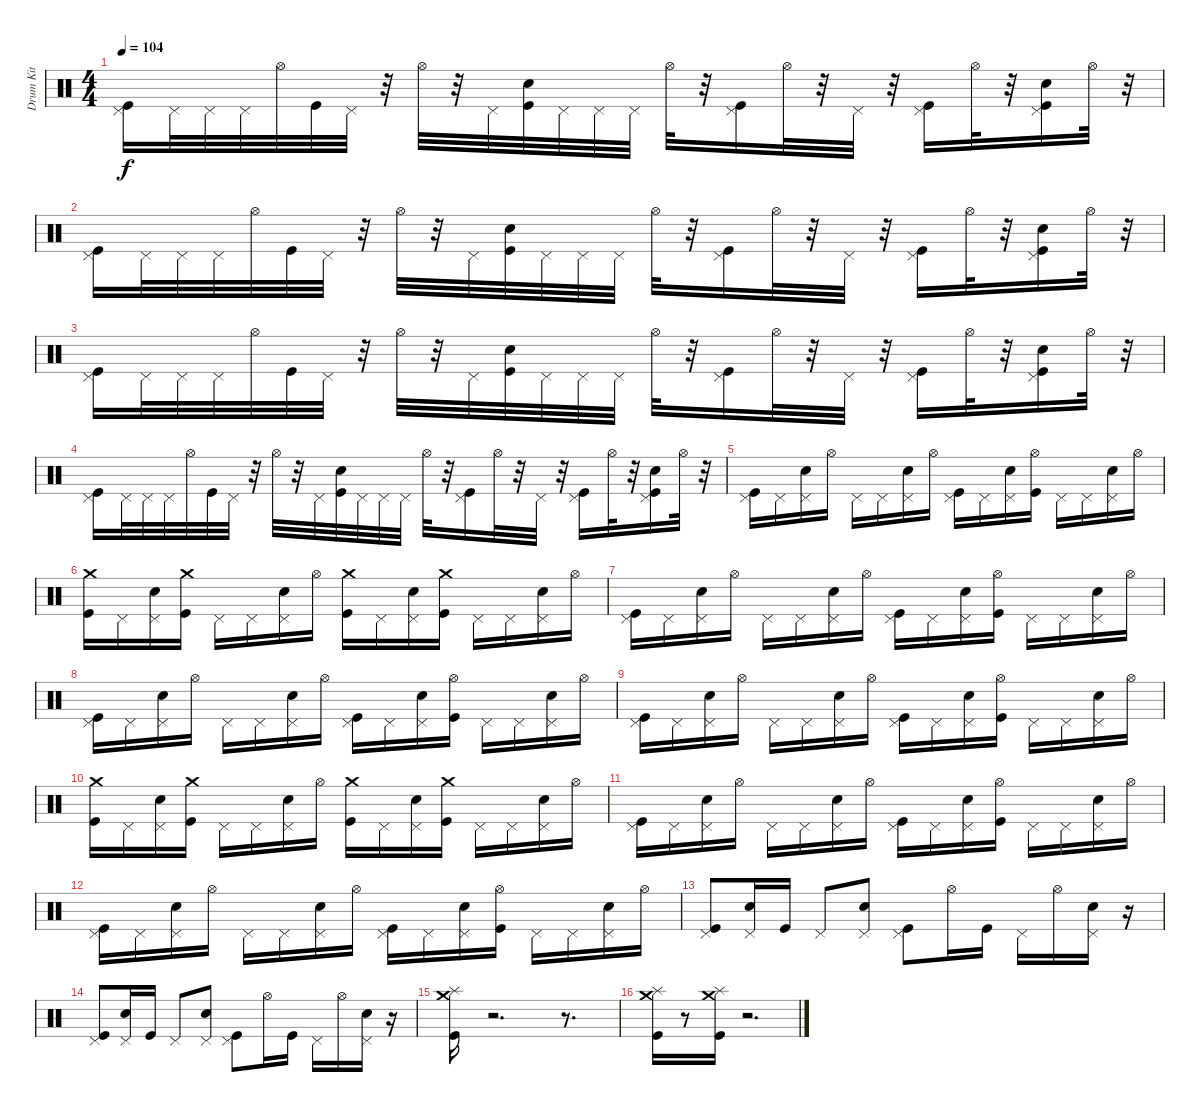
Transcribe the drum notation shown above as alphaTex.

\track ("Drum Kit" "Drum Kit") {instrument percussion}
\staff {score}
\articulation defaults
\ts (4 4)
\tempo 104
\clef neutral
\ks c
("Kick (hit)" "Pedal Hi-Hat (hit)").16{dy f volume 9 balance 16} "Pedal Hi-Hat (hit)".32 "Pedal Hi-Hat (hit)".32 "Pedal Hi-Hat (hit)".32 "Hi-Hat (open)".32 "Kick (hit)".32 "Pedal Hi-Hat (hit)".32 r.32 "Hi-Hat (open)".32 r.32 "Pedal Hi-Hat (hit)".32 ("Electric Snare (hit)" "Kick (hit)").32 "Pedal Hi-Hat (hit)".32 "Pedal Hi-Hat (hit)".32 "Pedal Hi-Hat (hit)".32 "Hi-Hat (open)".32 r.32 ("Pedal Hi-Hat (hit)" "Kick (hit)").16 "Hi-Hat (open)".32 r.32 "Pedal Hi-Hat (hit)".32 r.32 ("Kick (hit)" "Pedal Hi-Hat (hit)").16 "Hi-Hat (open)".32 r.32 ("Kick (hit)" "Electric Snare (hit)" "Pedal Hi-Hat (hit)").16 "Hi-Hat (open)".32 r.32 |
("Kick (hit)" "Pedal Hi-Hat (hit)").16 "Pedal Hi-Hat (hit)".32 "Pedal Hi-Hat (hit)".32 "Pedal Hi-Hat (hit)".32 "Hi-Hat (open)".32 "Kick (hit)".32 "Pedal Hi-Hat (hit)".32 r.32 "Hi-Hat (open)".32 r.32 "Pedal Hi-Hat (hit)".32 ("Electric Snare (hit)" "Kick (hit)").32 "Pedal Hi-Hat (hit)".32 "Pedal Hi-Hat (hit)".32 "Pedal Hi-Hat (hit)".32 "Hi-Hat (open)".32 r.32 ("Pedal Hi-Hat (hit)" "Kick (hit)").16 "Hi-Hat (open)".32 r.32 "Pedal Hi-Hat (hit)".32 r.32 ("Kick (hit)" "Pedal Hi-Hat (hit)").16 "Hi-Hat (open)".32 r.32 ("Kick (hit)" "Electric Snare (hit)" "Pedal Hi-Hat (hit)").16 "Hi-Hat (open)".32 r.32 |
("Kick (hit)" "Pedal Hi-Hat (hit)").16 "Pedal Hi-Hat (hit)".32 "Pedal Hi-Hat (hit)".32 "Pedal Hi-Hat (hit)".32 "Hi-Hat (open)".32 "Kick (hit)".32 "Pedal Hi-Hat (hit)".32 r.32 "Hi-Hat (open)".32 r.32 "Pedal Hi-Hat (hit)".32 ("Electric Snare (hit)" "Kick (hit)").32 "Pedal Hi-Hat (hit)".32 "Pedal Hi-Hat (hit)".32 "Pedal Hi-Hat (hit)".32 "Hi-Hat (open)".32 r.32 ("Pedal Hi-Hat (hit)" "Kick (hit)").16 "Hi-Hat (open)".32 r.32 "Pedal Hi-Hat (hit)".32 r.32 ("Kick (hit)" "Pedal Hi-Hat (hit)").16 "Hi-Hat (open)".32 r.32 ("Kick (hit)" "Electric Snare (hit)" "Pedal Hi-Hat (hit)").16 "Hi-Hat (open)".32 r.32 |
("Kick (hit)" "Pedal Hi-Hat (hit)").16 "Pedal Hi-Hat (hit)".32 "Pedal Hi-Hat (hit)".32 "Pedal Hi-Hat (hit)".32 "Hi-Hat (open)".32 "Kick (hit)".32 "Pedal Hi-Hat (hit)".32 r.32 "Hi-Hat (open)".32 r.32 "Pedal Hi-Hat (hit)".32 ("Electric Snare (hit)" "Kick (hit)").32 "Pedal Hi-Hat (hit)".32 "Pedal Hi-Hat (hit)".32 "Pedal Hi-Hat (hit)".32 "Hi-Hat (open)".32 r.32 ("Pedal Hi-Hat (hit)" "Kick (hit)").16 "Hi-Hat (open)".32 r.32 "Pedal Hi-Hat (hit)".32 r.32 ("Kick (hit)" "Pedal Hi-Hat (hit)").16 "Hi-Hat (open)".32 r.32 ("Kick (hit)" "Electric Snare (hit)" "Pedal Hi-Hat (hit)").16 "Hi-Hat (open)".32 r.32 |
("Kick (hit)" "Pedal Hi-Hat (hit)").16 "Pedal Hi-Hat (hit)".16 ("Electric Snare (hit)" "Pedal Hi-Hat (hit)").16 "Hi-Hat (open)".16 "Pedal Hi-Hat (hit)".16 "Pedal Hi-Hat (hit)".16 ("Electric Snare (hit)" "Pedal Hi-Hat (hit)").16 "Hi-Hat (open)".16 ("Kick (hit)" "Pedal Hi-Hat (hit)").16 "Pedal Hi-Hat (hit)".16 ("Electric Snare (hit)" "Pedal Hi-Hat (hit)").16 ("Kick (hit)" "Hi-Hat (open)").16 "Pedal Hi-Hat (hit)".16 "Pedal Hi-Hat (hit)".16 ("Electric Snare (hit)" "Pedal Hi-Hat (hit)").16 "Hi-Hat (open)".16 |
("Kick (hit)" "Crash medium (hit)").16 "Pedal Hi-Hat (hit)".16 ("Pedal Hi-Hat (hit)" "Electric Snare (hit)").16 ("Kick (hit)" "Crash medium (hit)").16 "Pedal Hi-Hat (hit)".16 "Pedal Hi-Hat (hit)".16 ("Pedal Hi-Hat (hit)" "Electric Snare (hit)").16 "Hi-Hat (open)".16 ("Kick (hit)" "Crash medium (hit)").16 "Pedal Hi-Hat (hit)".16 ("Pedal Hi-Hat (hit)" "Electric Snare (hit)").16 ("Kick (hit)" "Crash medium (hit)").16 "Pedal Hi-Hat (hit)".16 "Pedal Hi-Hat (hit)".16 ("Pedal Hi-Hat (hit)" "Electric Snare (hit)").16 "Hi-Hat (open)".16 |
("Kick (hit)" "Pedal Hi-Hat (hit)").16 "Pedal Hi-Hat (hit)".16 ("Electric Snare (hit)" "Pedal Hi-Hat (hit)").16 "Hi-Hat (open)".16 "Pedal Hi-Hat (hit)".16 "Pedal Hi-Hat (hit)".16 ("Electric Snare (hit)" "Pedal Hi-Hat (hit)").16 "Hi-Hat (open)".16 ("Kick (hit)" "Pedal Hi-Hat (hit)").16 "Pedal Hi-Hat (hit)".16 ("Electric Snare (hit)" "Pedal Hi-Hat (hit)").16 ("Kick (hit)" "Hi-Hat (open)").16 "Pedal Hi-Hat (hit)".16 "Pedal Hi-Hat (hit)".16 ("Electric Snare (hit)" "Pedal Hi-Hat (hit)").16 "Hi-Hat (open)".16 |
("Kick (hit)" "Pedal Hi-Hat (hit)").16 "Pedal Hi-Hat (hit)".16 ("Electric Snare (hit)" "Pedal Hi-Hat (hit)").16 "Hi-Hat (open)".16 "Pedal Hi-Hat (hit)".16 "Pedal Hi-Hat (hit)".16 ("Electric Snare (hit)" "Pedal Hi-Hat (hit)").16 "Hi-Hat (open)".16 ("Kick (hit)" "Pedal Hi-Hat (hit)").16 "Pedal Hi-Hat (hit)".16 ("Electric Snare (hit)" "Pedal Hi-Hat (hit)").16 ("Kick (hit)" "Hi-Hat (open)").16 "Pedal Hi-Hat (hit)".16 "Pedal Hi-Hat (hit)".16 ("Electric Snare (hit)" "Pedal Hi-Hat (hit)").16 "Hi-Hat (open)".16 |
("Kick (hit)" "Pedal Hi-Hat (hit)").16 "Pedal Hi-Hat (hit)".16 ("Electric Snare (hit)" "Pedal Hi-Hat (hit)").16 "Hi-Hat (open)".16 "Pedal Hi-Hat (hit)".16 "Pedal Hi-Hat (hit)".16 ("Electric Snare (hit)" "Pedal Hi-Hat (hit)").16 "Hi-Hat (open)".16 ("Kick (hit)" "Pedal Hi-Hat (hit)").16 "Pedal Hi-Hat (hit)".16 ("Electric Snare (hit)" "Pedal Hi-Hat (hit)").16 ("Kick (hit)" "Hi-Hat (open)").16 "Pedal Hi-Hat (hit)".16 "Pedal Hi-Hat (hit)".16 ("Electric Snare (hit)" "Pedal Hi-Hat (hit)").16 "Hi-Hat (open)".16 |
("Kick (hit)" "Crash medium (hit)").16 "Pedal Hi-Hat (hit)".16 ("Pedal Hi-Hat (hit)" "Electric Snare (hit)").16 ("Kick (hit)" "Crash medium (hit)").16 "Pedal Hi-Hat (hit)".16 "Pedal Hi-Hat (hit)".16 ("Pedal Hi-Hat (hit)" "Electric Snare (hit)").16 "Hi-Hat (open)".16 ("Kick (hit)" "Crash medium (hit)").16 "Pedal Hi-Hat (hit)".16 ("Pedal Hi-Hat (hit)" "Electric Snare (hit)").16 ("Kick (hit)" "Crash medium (hit)").16 "Pedal Hi-Hat (hit)".16 "Pedal Hi-Hat (hit)".16 ("Pedal Hi-Hat (hit)" "Electric Snare (hit)").16 "Hi-Hat (open)".16 |
("Kick (hit)" "Pedal Hi-Hat (hit)").16 "Pedal Hi-Hat (hit)".16 ("Electric Snare (hit)" "Pedal Hi-Hat (hit)").16 "Hi-Hat (open)".16 "Pedal Hi-Hat (hit)".16 "Pedal Hi-Hat (hit)".16 ("Electric Snare (hit)" "Pedal Hi-Hat (hit)").16 "Hi-Hat (open)".16 ("Kick (hit)" "Pedal Hi-Hat (hit)").16 "Pedal Hi-Hat (hit)".16 ("Electric Snare (hit)" "Pedal Hi-Hat (hit)").16 ("Kick (hit)" "Hi-Hat (open)").16 "Pedal Hi-Hat (hit)".16 "Pedal Hi-Hat (hit)".16 ("Electric Snare (hit)" "Pedal Hi-Hat (hit)").16 "Hi-Hat (open)".16 |
("Kick (hit)" "Pedal Hi-Hat (hit)").16 "Pedal Hi-Hat (hit)".16 ("Electric Snare (hit)" "Pedal Hi-Hat (hit)").16 "Hi-Hat (open)".16 "Pedal Hi-Hat (hit)".16 "Pedal Hi-Hat (hit)".16 ("Electric Snare (hit)" "Pedal Hi-Hat (hit)").16 "Hi-Hat (open)".16 ("Kick (hit)" "Pedal Hi-Hat (hit)").16 "Pedal Hi-Hat (hit)".16 ("Electric Snare (hit)" "Pedal Hi-Hat (hit)").16 ("Kick (hit)" "Hi-Hat (open)").16 "Pedal Hi-Hat (hit)".16 "Pedal Hi-Hat (hit)".16 ("Electric Snare (hit)" "Pedal Hi-Hat (hit)").16 "Hi-Hat (open)".16 |
("Kick (hit)" "Pedal Hi-Hat (hit)").8 ("Electric Snare (hit)" "Pedal Hi-Hat (hit)").16 "Kick (hit)".16 "Pedal Hi-Hat (hit)".8 ("Electric Snare (hit)" "Pedal Hi-Hat (hit)").8 ("Kick (hit)" "Pedal Hi-Hat (hit)").8 "Hi-Hat (open)".16 "Kick (hit)".16 "Pedal Hi-Hat (hit)".16 "Hi-Hat (open)".16 ("Electric Snare (hit)" "Pedal Hi-Hat (hit)").16 r.16 |
("Kick (hit)" "Pedal Hi-Hat (hit)").8 ("Electric Snare (hit)" "Pedal Hi-Hat (hit)").16 "Kick (hit)".16 "Pedal Hi-Hat (hit)".8 ("Electric Snare (hit)" "Pedal Hi-Hat (hit)").8 ("Kick (hit)" "Pedal Hi-Hat (hit)").8 "Hi-Hat (open)".16 "Kick (hit)".16 "Pedal Hi-Hat (hit)".16 "Hi-Hat (open)".16 ("Electric Snare (hit)" "Pedal Hi-Hat (hit)").16 r.16 |
("Kick (hit)" "Splash (hit)" "Crash medium (hit)").16 r.2{d} r.8{d} |
("Crash medium (hit)" "Kick (hit)" "Splash (hit)").16 r.8 ("Kick (hit)" "Splash (hit)" "Crash medium (hit)").16 r.2{d}
